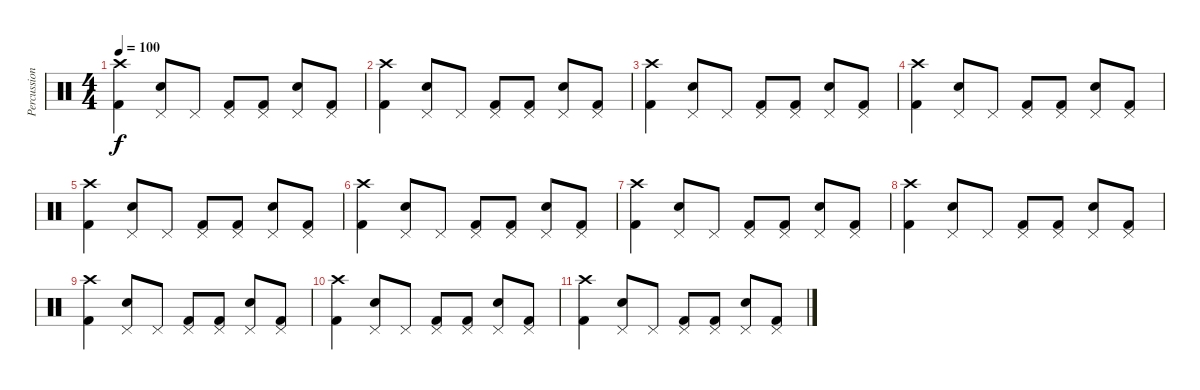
\track ("Percussion" "Percussion") {instrument percussion}
\staff {score}
\articulation defaults
\ts (4 4)
\tempo 100
\clef neutral
\ks c
("Crash high (hit)" "Kick (hit) 2").4{dy f} ("Pedal Hi-Hat (hit)" "Snare (hit) 2").8 "Pedal Hi-Hat (hit)".8 ("Pedal Hi-Hat (hit)" "Kick (hit) 2").8 ("Pedal Hi-Hat (hit)" "Kick (hit) 2").8 ("Pedal Hi-Hat (hit)" "Snare (hit) 2").8 ("Pedal Hi-Hat (hit)" "Kick (hit) 2").8 |
("Crash high (hit)" "Kick (hit) 2").4 ("Pedal Hi-Hat (hit)" "Snare (hit) 2").8 "Pedal Hi-Hat (hit)".8 ("Pedal Hi-Hat (hit)" "Kick (hit) 2").8 ("Pedal Hi-Hat (hit)" "Kick (hit) 2").8 ("Pedal Hi-Hat (hit)" "Snare (hit) 2").8 ("Pedal Hi-Hat (hit)" "Kick (hit) 2").8 |
("Crash high (hit)" "Kick (hit) 2").4 ("Pedal Hi-Hat (hit)" "Snare (hit) 2").8 "Pedal Hi-Hat (hit)".8 ("Pedal Hi-Hat (hit)" "Kick (hit) 2").8 ("Pedal Hi-Hat (hit)" "Kick (hit) 2").8 ("Pedal Hi-Hat (hit)" "Snare (hit) 2").8 ("Pedal Hi-Hat (hit)" "Kick (hit) 2").8 |
("Crash high (hit)" "Kick (hit) 2").4 ("Pedal Hi-Hat (hit)" "Snare (hit) 2").8 "Pedal Hi-Hat (hit)".8 ("Pedal Hi-Hat (hit)" "Kick (hit) 2").8 ("Pedal Hi-Hat (hit)" "Kick (hit) 2").8 ("Pedal Hi-Hat (hit)" "Snare (hit) 2").8 ("Pedal Hi-Hat (hit)" "Kick (hit) 2").8 |
("Crash high (hit)" "Kick (hit) 2").4 ("Pedal Hi-Hat (hit)" "Snare (hit) 2").8 "Pedal Hi-Hat (hit)".8 ("Pedal Hi-Hat (hit)" "Kick (hit) 2").8 ("Pedal Hi-Hat (hit)" "Kick (hit) 2").8 ("Pedal Hi-Hat (hit)" "Snare (hit) 2").8 ("Pedal Hi-Hat (hit)" "Kick (hit) 2").8 |
("Crash high (hit)" "Kick (hit) 2").4 ("Pedal Hi-Hat (hit)" "Snare (hit) 2").8 "Pedal Hi-Hat (hit)".8 ("Pedal Hi-Hat (hit)" "Kick (hit) 2").8 ("Pedal Hi-Hat (hit)" "Kick (hit) 2").8 ("Pedal Hi-Hat (hit)" "Snare (hit) 2").8 ("Pedal Hi-Hat (hit)" "Kick (hit) 2").8 |
("Crash high (hit)" "Kick (hit) 2").4 ("Pedal Hi-Hat (hit)" "Snare (hit) 2").8 "Pedal Hi-Hat (hit)".8 ("Pedal Hi-Hat (hit)" "Kick (hit) 2").8 ("Pedal Hi-Hat (hit)" "Kick (hit) 2").8 ("Pedal Hi-Hat (hit)" "Snare (hit) 2").8 ("Pedal Hi-Hat (hit)" "Kick (hit) 2").8 |
("Crash high (hit)" "Kick (hit) 2").4 ("Pedal Hi-Hat (hit)" "Snare (hit) 2").8 "Pedal Hi-Hat (hit)".8 ("Pedal Hi-Hat (hit)" "Kick (hit) 2").8 ("Pedal Hi-Hat (hit)" "Kick (hit) 2").8 ("Pedal Hi-Hat (hit)" "Snare (hit) 2").8 ("Pedal Hi-Hat (hit)" "Kick (hit) 2").8 |
("Crash high (hit)" "Kick (hit) 2").4 ("Pedal Hi-Hat (hit)" "Snare (hit) 2").8 "Pedal Hi-Hat (hit)".8 ("Pedal Hi-Hat (hit)" "Kick (hit) 2").8 ("Pedal Hi-Hat (hit)" "Kick (hit) 2").8 ("Pedal Hi-Hat (hit)" "Snare (hit) 2").8 ("Pedal Hi-Hat (hit)" "Kick (hit) 2").8 |
("Crash high (hit)" "Kick (hit) 2").4 ("Pedal Hi-Hat (hit)" "Snare (hit) 2").8 "Pedal Hi-Hat (hit)".8 ("Pedal Hi-Hat (hit)" "Kick (hit) 2").8 ("Pedal Hi-Hat (hit)" "Kick (hit) 2").8 ("Pedal Hi-Hat (hit)" "Snare (hit) 2").8 ("Pedal Hi-Hat (hit)" "Kick (hit) 2").8 |
("Crash high (hit)" "Kick (hit) 2").4 ("Pedal Hi-Hat (hit)" "Snare (hit) 2").8 "Pedal Hi-Hat (hit)".8 ("Pedal Hi-Hat (hit)" "Kick (hit) 2").8 ("Pedal Hi-Hat (hit)" "Kick (hit) 2").8 ("Pedal Hi-Hat (hit)" "Snare (hit) 2").8 ("Pedal Hi-Hat (hit)" "Kick (hit) 2").8
